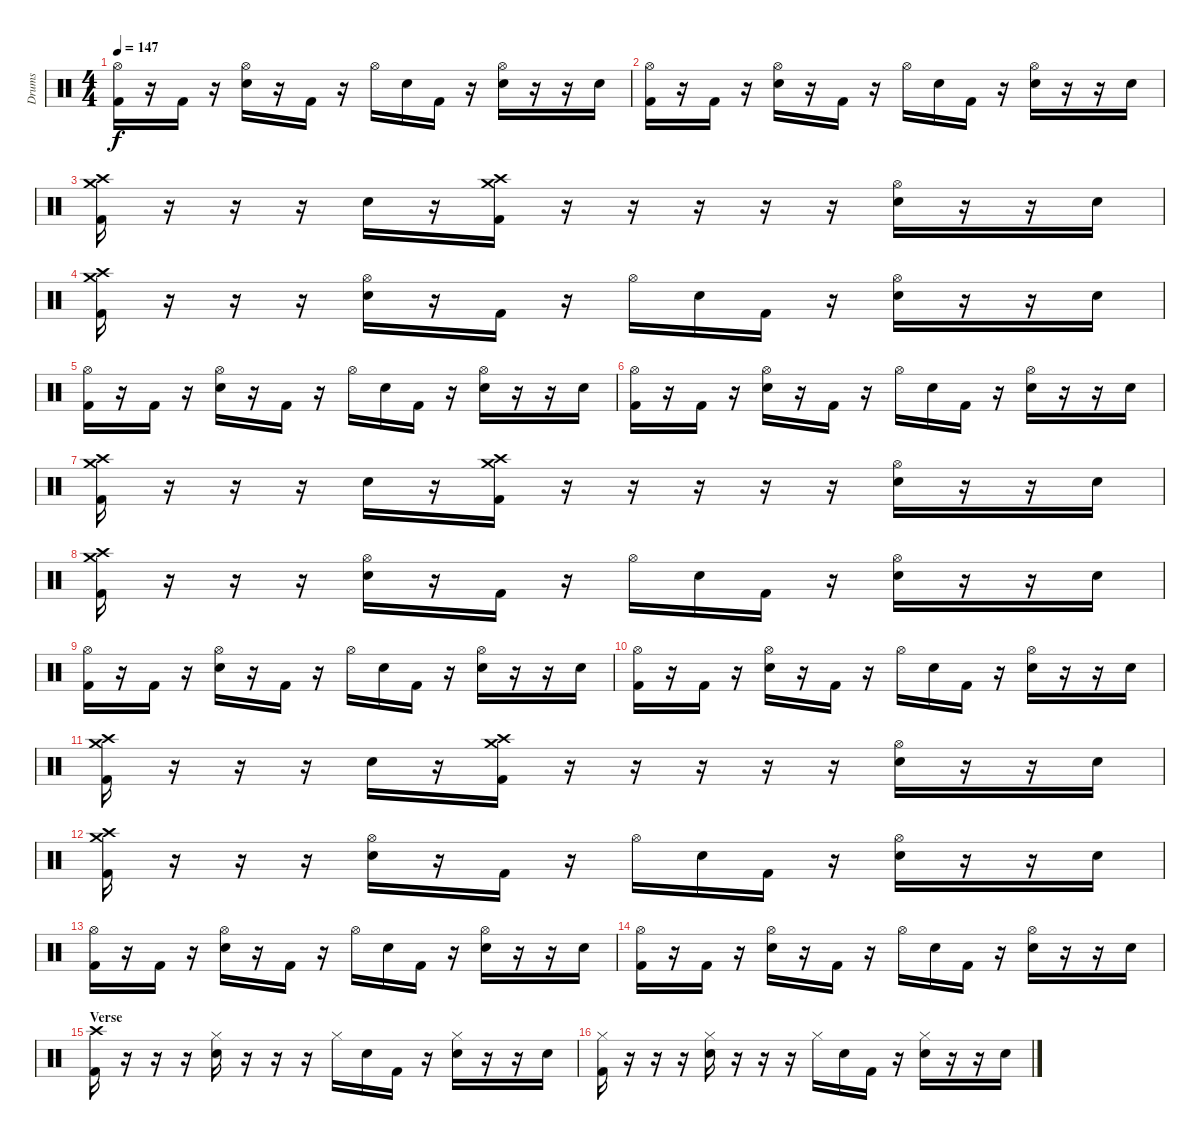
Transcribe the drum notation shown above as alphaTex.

\track ("Drums" "Drums") {instrument percussion}
\staff {score}
\articulation defaults
\ts (4 4)
\tempo 147
\clef neutral
\ks c
("Hi-Hat (open)" "Kick (hit) 2").16{dy f} r.16 "Kick (hit) 2".16 r.16 ("Hi-Hat (open)" "Snare (hit) 2").16 r.16 "Kick (hit) 2".16 r.16 "Hi-Hat (open)".16 "Snare (hit) 2".16 "Kick (hit) 2".16 r.16 ("Hi-Hat (open)" "Snare (hit) 2").16 r.16 r.16 "Snare (hit) 2".16 |
("Hi-Hat (open)" "Kick (hit) 2").16 r.16 "Kick (hit) 2".16 r.16 ("Hi-Hat (open)" "Snare (hit) 2").16 r.16 "Kick (hit) 2".16 r.16 "Hi-Hat (open)".16 "Snare (hit) 2".16 "Kick (hit) 2".16 r.16 ("Hi-Hat (open)" "Snare (hit) 2").16 r.16 r.16 "Snare (hit) 2".16 |
("Crash high (hit)" "Crash medium (hit)" "Kick (hit) 2").16 r.16 r.16 r.16 "Snare (hit) 2".16 r.16 ("Crash high (hit)" "Crash medium (hit)" "Kick (hit) 2").16 r.16 r.16 r.16 r.16 r.16 ("Hi-Hat (open)" "Snare (hit) 2").16 r.16 r.16 "Snare (hit) 2".16 |
("Crash high (hit)" "Crash medium (hit)" "Kick (hit) 2").16 r.16 r.16 r.16 ("Hi-Hat (open)" "Snare (hit) 2").16 r.16 "Kick (hit) 2".16 r.16 "Hi-Hat (open)".16 "Snare (hit) 2".16 "Kick (hit) 2".16 r.16 ("Hi-Hat (open)" "Snare (hit) 2").16 r.16 r.16 "Snare (hit) 2".16 |
("Hi-Hat (open)" "Kick (hit) 2").16 r.16 "Kick (hit) 2".16 r.16 ("Hi-Hat (open)" "Snare (hit) 2").16 r.16 "Kick (hit) 2".16 r.16 "Hi-Hat (open)".16 "Snare (hit) 2".16 "Kick (hit) 2".16 r.16 ("Hi-Hat (open)" "Snare (hit) 2").16 r.16 r.16 "Snare (hit) 2".16 |
("Hi-Hat (open)" "Kick (hit) 2").16 r.16 "Kick (hit) 2".16 r.16 ("Hi-Hat (open)" "Snare (hit) 2").16 r.16 "Kick (hit) 2".16 r.16 "Hi-Hat (open)".16 "Snare (hit) 2".16 "Kick (hit) 2".16 r.16 ("Hi-Hat (open)" "Snare (hit) 2").16 r.16 r.16 "Snare (hit) 2".16 |
("Crash high (hit)" "Crash medium (hit)" "Kick (hit) 2").16 r.16 r.16 r.16 "Snare (hit) 2".16 r.16 ("Crash high (hit)" "Crash medium (hit)" "Kick (hit) 2").16 r.16 r.16 r.16 r.16 r.16 ("Hi-Hat (open)" "Snare (hit) 2").16 r.16 r.16 "Snare (hit) 2".16 |
("Crash high (hit)" "Crash medium (hit)" "Kick (hit) 2").16 r.16 r.16 r.16 ("Hi-Hat (open)" "Snare (hit) 2").16 r.16 "Kick (hit) 2".16 r.16 "Hi-Hat (open)".16 "Snare (hit) 2".16 "Kick (hit) 2".16 r.16 ("Hi-Hat (open)" "Snare (hit) 2").16 r.16 r.16 "Snare (hit) 2".16 |
("Hi-Hat (open)" "Kick (hit) 2").16 r.16 "Kick (hit) 2".16 r.16 ("Hi-Hat (open)" "Snare (hit) 2").16 r.16 "Kick (hit) 2".16 r.16 "Hi-Hat (open)".16 "Snare (hit) 2".16 "Kick (hit) 2".16 r.16 ("Hi-Hat (open)" "Snare (hit) 2").16 r.16 r.16 "Snare (hit) 2".16 |
("Hi-Hat (open)" "Kick (hit) 2").16 r.16 "Kick (hit) 2".16 r.16 ("Hi-Hat (open)" "Snare (hit) 2").16 r.16 "Kick (hit) 2".16 r.16 "Hi-Hat (open)".16 "Snare (hit) 2".16 "Kick (hit) 2".16 r.16 ("Hi-Hat (open)" "Snare (hit) 2").16 r.16 r.16 "Snare (hit) 2".16 |
("Crash high (hit)" "Crash medium (hit)" "Kick (hit) 2").16 r.16 r.16 r.16 "Snare (hit) 2".16 r.16 ("Crash high (hit)" "Crash medium (hit)" "Kick (hit) 2").16 r.16 r.16 r.16 r.16 r.16 ("Hi-Hat (open)" "Snare (hit) 2").16 r.16 r.16 "Snare (hit) 2".16 |
("Crash high (hit)" "Crash medium (hit)" "Kick (hit) 2").16 r.16 r.16 r.16 ("Hi-Hat (open)" "Snare (hit) 2").16 r.16 "Kick (hit) 2".16 r.16 "Hi-Hat (open)".16 "Snare (hit) 2".16 "Kick (hit) 2".16 r.16 ("Hi-Hat (open)" "Snare (hit) 2").16 r.16 r.16 "Snare (hit) 2".16 |
("Hi-Hat (open)" "Kick (hit) 2").16 r.16 "Kick (hit) 2".16 r.16 ("Hi-Hat (open)" "Snare (hit) 2").16 r.16 "Kick (hit) 2".16 r.16 "Hi-Hat (open)".16 "Snare (hit) 2".16 "Kick (hit) 2".16 r.16 ("Hi-Hat (open)" "Snare (hit) 2").16 r.16 r.16 "Snare (hit) 2".16 |
("Hi-Hat (open)" "Kick (hit) 2").16 r.16 "Kick (hit) 2".16 r.16 ("Hi-Hat (open)" "Snare (hit) 2").16 r.16 "Kick (hit) 2".16 r.16 "Hi-Hat (open)".16 "Snare (hit) 2".16 "Kick (hit) 2".16 r.16 ("Hi-Hat (open)" "Snare (hit) 2").16 r.16 r.16 "Snare (hit) 2".16 |
\section ("" "Verse")
("Crash high (hit)" "Kick (hit) 2").16 r.16 r.16 r.16 ("Hi-Hat (closed)" "Snare (hit) 2").16 r.16 r.16 r.16 "Hi-Hat (closed)".16 "Snare (hit) 2".16 "Kick (hit) 2".16 r.16 ("Hi-Hat (closed)" "Snare (hit) 2").16 r.16 r.16 "Snare (hit) 2".16 |
("Hi-Hat (closed)" "Kick (hit) 2").16 r.16 r.16 r.16 ("Hi-Hat (closed)" "Snare (hit) 2").16 r.16 r.16 r.16 "Hi-Hat (closed)".16 "Snare (hit) 2".16 "Kick (hit) 2".16 r.16 ("Hi-Hat (closed)" "Snare (hit) 2").16 r.16 r.16 "Snare (hit) 2".16
